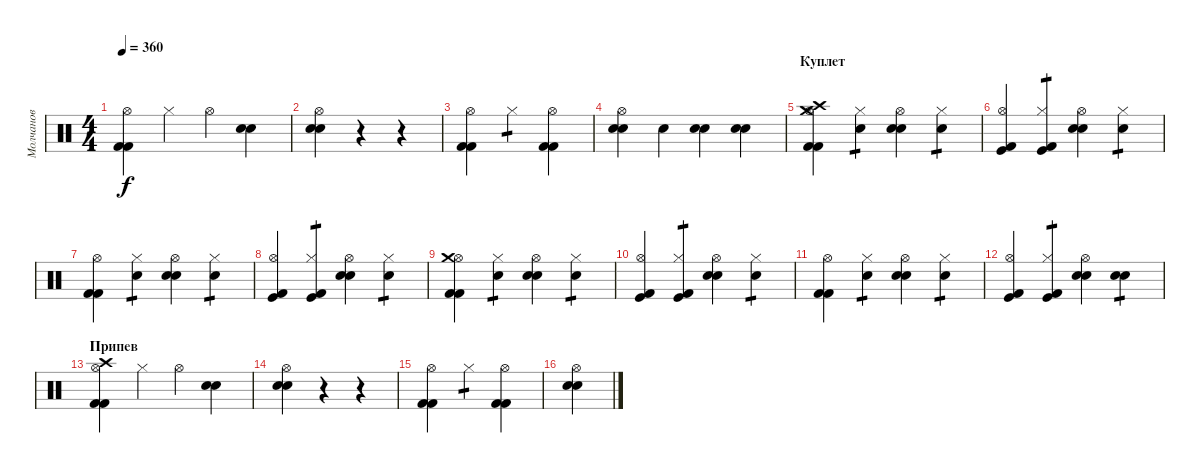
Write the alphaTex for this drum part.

\track ("Молчанов" "Молчанов") {instrument percussion}
\staff {score}
\articulation defaults
\ts (4 4)
\tempo 360
\clef neutral
\ks c
("Kick (hit) 2" "Kick (hit) 2" "Hi-Hat (open)").4{dy f} "Hi-Hat (closed)"{x}.4 "Hi-Hat (open)"{x}.4 ("Snare (hit)"{x} "Snare (hit)"{x}).4 |
("Electric Snare (hit)" "Electric Snare (hit)" "Hi-Hat (open)").4 r.4 r.4 |
("Kick (hit) 2" "Kick (hit) 2" "Hi-Hat (open)").4 "Hi-Hat (closed)".4{tp 1} ("Kick (hit) 2" "Kick (hit) 2" "Hi-Hat (open)").4 |
("Electric Snare (hit)" "Electric Snare (hit)" "Hi-Hat (open)").4 "Snare (hit)"{x}.4 ("Electric Snare (hit)" "Electric Snare (hit)").4 ("Electric Snare (hit)" "Electric Snare (hit)").4 |
\section ("" "Куплет")
("Kick (hit) 2" "Kick (hit) 2" "Hi-Hat (open)" "Crash high (hit)" "Crash medium (hit)").4 ("Snare (hit)"{x} "Hi-Hat (closed)").4{tp 1} ("Electric Snare (hit)" "Electric Snare (hit)" "Hi-Hat (open)").4 ("Snare (hit)"{x} "Hi-Hat (closed)").4{tp 1} |
("Kick (hit) 2" "Kick (hit)" "Hi-Hat (open)").4 ("Kick (hit) 2" "Kick (hit)" "Hi-Hat (closed)").4{tp 1} ("Electric Snare (hit)" "Electric Snare (hit)" "Hi-Hat (open)").4 ("Snare (hit)"{x} "Hi-Hat (closed)").4{tp 1} |
("Kick (hit) 2" "Kick (hit) 2" "Hi-Hat (open)").4 ("Snare (hit)"{x} "Hi-Hat (closed)").4{tp 1} ("Electric Snare (hit)" "Electric Snare (hit)" "Hi-Hat (open)").4 ("Snare (hit)"{x} "Hi-Hat (closed)").4{tp 1} |
("Kick (hit) 2" "Kick (hit)" "Hi-Hat (open)").4 ("Kick (hit) 2" "Kick (hit)" "Hi-Hat (closed)").4{tp 1} ("Electric Snare (hit)" "Electric Snare (hit)" "Hi-Hat (open)").4 ("Snare (hit)"{x} "Hi-Hat (closed)").4{tp 1} |
("Kick (hit) 2" "Kick (hit) 2" "Hi-Hat (open)" "Crash medium (hit)").4 ("Snare (hit)"{x} "Hi-Hat (closed)").4{tp 1} ("Electric Snare (hit)" "Electric Snare (hit)" "Hi-Hat (open)").4 ("Snare (hit)"{x} "Hi-Hat (closed)").4{tp 1} |
("Kick (hit) 2" "Kick (hit)" "Hi-Hat (open)").4 ("Kick (hit) 2" "Kick (hit)" "Hi-Hat (closed)").4{tp 1} ("Electric Snare (hit)" "Electric Snare (hit)" "Hi-Hat (open)").4 ("Snare (hit)"{x} "Hi-Hat (closed)").4{tp 1} |
("Kick (hit) 2" "Kick (hit) 2" "Hi-Hat (open)").4 ("Snare (hit)"{x} "Hi-Hat (closed)").4{tp 1} ("Electric Snare (hit)" "Electric Snare (hit)" "Hi-Hat (open)").4 ("Snare (hit)"{x} "Hi-Hat (closed)").4{tp 1} |
("Kick (hit) 2" "Kick (hit)" "Hi-Hat (open)").4 ("Kick (hit) 2" "Kick (hit)" "Hi-Hat (closed)").4{tp 1} ("Electric Snare (hit)" "Electric Snare (hit)" "Hi-Hat (open)").4 ("Electric Snare (hit)" "Electric Snare (hit)").4{tp 1} |
\section ("" "Припев")
("Kick (hit) 2" "Kick (hit) 2" "Hi-Hat (open)" "Crash high (hit)").4 "Hi-Hat (closed)"{x}.4 "Hi-Hat (open)"{x}.4 ("Snare (hit)"{x} "Snare (hit)"{x}).4 |
("Electric Snare (hit)" "Electric Snare (hit)" "Hi-Hat (open)").4 r.4 r.4 |
("Kick (hit) 2" "Kick (hit) 2" "Hi-Hat (open)").4 "Hi-Hat (closed)".4{tp 1} ("Kick (hit) 2" "Kick (hit) 2" "Hi-Hat (open)").4 |
("Electric Snare (hit)" "Electric Snare (hit)" "Hi-Hat (open)").4
